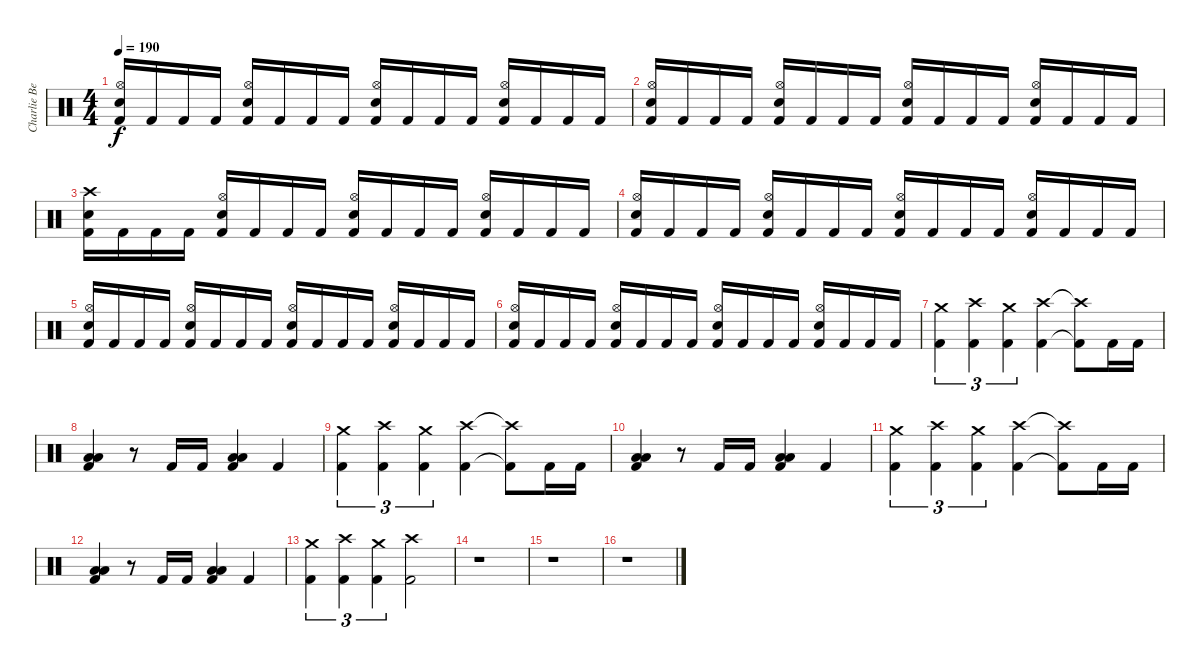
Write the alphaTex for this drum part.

\track ("Charlie Benante" "Charlie Be") {instrument percussion}
\staff {score}
\articulation defaults
\ts (4 4)
\tempo 190
\clef neutral
\ks c
("Snare (hit) 2" "Hi-Hat (open)" "Kick (hit) 2").16{dy f} "Kick (hit) 2".16 "Kick (hit) 2".16 "Kick (hit) 2".16 ("Snare (hit) 2" "Hi-Hat (open)" "Kick (hit) 2").16 "Kick (hit) 2".16 "Kick (hit) 2".16 "Kick (hit) 2".16 ("Snare (hit) 2" "Hi-Hat (open)" "Kick (hit) 2").16 "Kick (hit) 2".16 "Kick (hit) 2".16 "Kick (hit) 2".16 ("Snare (hit) 2" "Hi-Hat (open)" "Kick (hit) 2").16 "Kick (hit) 2".16 "Kick (hit) 2".16 "Kick (hit) 2".16 |
("Snare (hit) 2" "Hi-Hat (open)" "Kick (hit) 2").16 "Kick (hit) 2".16 "Kick (hit) 2".16 "Kick (hit) 2".16 ("Snare (hit) 2" "Hi-Hat (open)" "Kick (hit) 2").16 "Kick (hit) 2".16 "Kick (hit) 2".16 "Kick (hit) 2".16 ("Snare (hit) 2" "Hi-Hat (open)" "Kick (hit) 2").16 "Kick (hit) 2".16 "Kick (hit) 2".16 "Kick (hit) 2".16 ("Snare (hit) 2" "Hi-Hat (open)" "Kick (hit) 2").16 "Kick (hit) 2".16 "Kick (hit) 2".16 "Kick (hit) 2".16 |
("Snare (hit) 2" "Crash high (hit)" "Kick (hit) 2").16 "Kick (hit) 2".16 "Kick (hit) 2".16 "Kick (hit) 2".16 ("Snare (hit) 2" "Hi-Hat (open)" "Kick (hit) 2").16 "Kick (hit) 2".16 "Kick (hit) 2".16 "Kick (hit) 2".16 ("Snare (hit) 2" "Hi-Hat (open)" "Kick (hit) 2").16 "Kick (hit) 2".16 "Kick (hit) 2".16 "Kick (hit) 2".16 ("Snare (hit) 2" "Hi-Hat (open)" "Kick (hit) 2").16 "Kick (hit) 2".16 "Kick (hit) 2".16 "Kick (hit) 2".16 |
("Snare (hit) 2" "Hi-Hat (open)" "Kick (hit) 2").16 "Kick (hit) 2".16 "Kick (hit) 2".16 "Kick (hit) 2".16 ("Snare (hit) 2" "Hi-Hat (open)" "Kick (hit) 2").16 "Kick (hit) 2".16 "Kick (hit) 2".16 "Kick (hit) 2".16 ("Snare (hit) 2" "Hi-Hat (open)" "Kick (hit) 2").16 "Kick (hit) 2".16 "Kick (hit) 2".16 "Kick (hit) 2".16 ("Snare (hit) 2" "Hi-Hat (open)" "Kick (hit) 2").16 "Kick (hit) 2".16 "Kick (hit) 2".16 "Kick (hit) 2".16 |
("Snare (hit) 2" "Hi-Hat (open)" "Kick (hit) 2").16 "Kick (hit) 2".16 "Kick (hit) 2".16 "Kick (hit) 2".16 ("Snare (hit) 2" "Hi-Hat (open)" "Kick (hit) 2").16 "Kick (hit) 2".16 "Kick (hit) 2".16 "Kick (hit) 2".16 ("Snare (hit) 2" "Hi-Hat (open)" "Kick (hit) 2").16 "Kick (hit) 2".16 "Kick (hit) 2".16 "Kick (hit) 2".16 ("Snare (hit) 2" "Hi-Hat (open)" "Kick (hit) 2").16 "Kick (hit) 2".16 "Kick (hit) 2".16 "Kick (hit) 2".16 |
("Snare (hit) 2" "Hi-Hat (open)" "Kick (hit) 2").16 "Kick (hit) 2".16 "Kick (hit) 2".16 "Kick (hit) 2".16 ("Snare (hit) 2" "Hi-Hat (open)" "Kick (hit) 2").16 "Kick (hit) 2".16 "Kick (hit) 2".16 "Kick (hit) 2".16 ("Snare (hit) 2" "Hi-Hat (open)" "Kick (hit) 2").16 "Kick (hit) 2".16 "Kick (hit) 2".16 "Kick (hit) 2".16 ("Snare (hit) 2" "Hi-Hat (open)" "Kick (hit) 2").16 "Kick (hit) 2".16 "Kick (hit) 2".16 "Kick (hit) 2".16 |
("Crash medium (hit)" "Kick (hit) 2").4{tu (3 2)} ("Crash high (hit)" "Kick (hit) 2").4{tu (3 2)} ("Crash medium (hit)" "Kick (hit) 2").4{tu (3 2)} ("Crash high (hit)" "Kick (hit) 2").4 ("Crash high (hit)"{t} "Kick (hit) 2"{t}).8 "Kick (hit) 2".16 "Kick (hit) 2".16 |
("Low Floor Tom (hit)" "Low Tom (hit)" "Kick (hit) 2").4 r.8 "Kick (hit) 2".16 "Kick (hit) 2".16 ("Low Floor Tom (hit)" "Low Tom (hit)" "Kick (hit) 2").4 "Kick (hit) 2".4 |
("Crash medium (hit)" "Kick (hit) 2").4{tu (3 2)} ("Crash high (hit)" "Kick (hit) 2").4{tu (3 2)} ("Crash medium (hit)" "Kick (hit) 2").4{tu (3 2)} ("Crash high (hit)" "Kick (hit) 2").4 ("Crash high (hit)"{t} "Kick (hit) 2"{t}).8 "Kick (hit) 2".16 "Kick (hit) 2".16 |
("Low Floor Tom (hit)" "Low Tom (hit)" "Kick (hit) 2").4 r.8 "Kick (hit) 2".16 "Kick (hit) 2".16 ("Low Floor Tom (hit)" "Low Tom (hit)" "Kick (hit) 2").4 "Kick (hit) 2".4 |
("Crash medium (hit)" "Kick (hit) 2").4{tu (3 2)} ("Crash high (hit)" "Kick (hit) 2").4{tu (3 2)} ("Crash medium (hit)" "Kick (hit) 2").4{tu (3 2)} ("Crash high (hit)" "Kick (hit) 2").4 ("Crash high (hit)"{t} "Kick (hit) 2"{t}).8 "Kick (hit) 2".16 "Kick (hit) 2".16 |
("Low Floor Tom (hit)" "Low Tom (hit)" "Kick (hit) 2").4 r.8 "Kick (hit) 2".16 "Kick (hit) 2".16 ("Low Floor Tom (hit)" "Low Tom (hit)" "Kick (hit) 2").4 "Kick (hit) 2".4 |
("Crash medium (hit)" "Kick (hit) 2").4{tu (3 2)} ("Crash high (hit)" "Kick (hit) 2").4{tu (3 2)} ("Crash medium (hit)" "Kick (hit) 2").4{tu (3 2)} ("Crash high (hit)" "Kick (hit) 2").2 |
r.1 |
r.1 |
r.1
